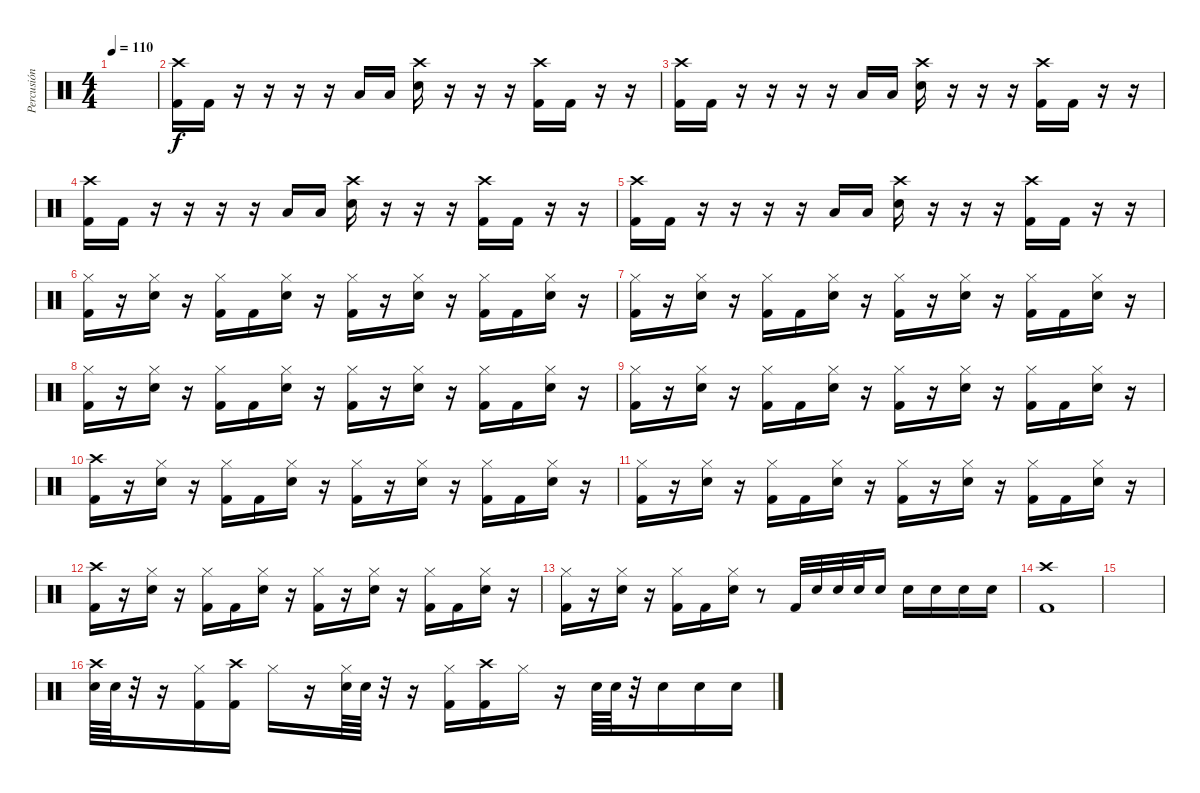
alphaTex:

\track ("Percusión" "Percusión") {instrument percussion}
\staff {score}
\articulation defaults
\ts (4 4)
\tempo 110
\clef neutral
\ks c
|
("Kick (hit) 2" "Crash high (hit)").16 "Kick (hit) 2".16 r.16 r.16 r.16 r.16 "Low Tom (hit)".16 "Low Tom (hit)".16 ("Electric Snare (hit)" "Crash high (hit)").16 r.16 r.16 r.16 ("Kick (hit) 2" "Crash high (hit)").16 "Kick (hit) 2".16 r.16 r.16 |
("Kick (hit) 2" "Crash high (hit)").16 "Kick (hit) 2".16 r.16 r.16 r.16 r.16 "Low Tom (hit)".16 "Low Tom (hit)".16 ("Electric Snare (hit)" "Crash high (hit)").16 r.16 r.16 r.16 ("Kick (hit) 2" "Crash high (hit)").16 "Kick (hit) 2".16 r.16 r.16 |
("Kick (hit) 2" "Crash high (hit)").16 "Kick (hit) 2".16 r.16 r.16 r.16 r.16 "Low Tom (hit)".16 "Low Tom (hit)".16 ("Electric Snare (hit)" "Crash high (hit)").16 r.16 r.16 r.16 ("Kick (hit) 2" "Crash high (hit)").16 "Kick (hit) 2".16 r.16 r.16 |
("Kick (hit) 2" "Crash high (hit)").16 "Kick (hit) 2".16 r.16 r.16 r.16 r.16 "Low Tom (hit)".16 "Low Tom (hit)".16 ("Electric Snare (hit)" "Crash high (hit)").16 r.16 r.16 r.16 ("Kick (hit) 2" "Crash high (hit)").16 "Kick (hit) 2".16 r.16 r.16 |
("Kick (hit) 2" "Hi-Hat (closed)").16 r.16 ("Electric Snare (hit)" "Hi-Hat (closed)").16 r.16 ("Kick (hit) 2" "Hi-Hat (closed)").16 "Kick (hit) 2".16 ("Electric Snare (hit)" "Hi-Hat (closed)").16 r.16 ("Kick (hit) 2" "Hi-Hat (closed)").16 r.16 ("Electric Snare (hit)" "Hi-Hat (closed)").16 r.16 ("Kick (hit) 2" "Hi-Hat (closed)").16 "Kick (hit) 2".16 ("Electric Snare (hit)" "Hi-Hat (closed)").16 r.16 |
("Kick (hit) 2" "Hi-Hat (closed)").16 r.16 ("Electric Snare (hit)" "Hi-Hat (closed)").16 r.16 ("Kick (hit) 2" "Hi-Hat (closed)").16 "Kick (hit) 2".16 ("Electric Snare (hit)" "Hi-Hat (closed)").16 r.16 ("Kick (hit) 2" "Hi-Hat (closed)").16 r.16 ("Electric Snare (hit)" "Hi-Hat (closed)").16 r.16 ("Kick (hit) 2" "Hi-Hat (closed)").16 "Kick (hit) 2".16 ("Electric Snare (hit)" "Hi-Hat (closed)").16 r.16 |
("Kick (hit) 2" "Hi-Hat (closed)").16 r.16 ("Electric Snare (hit)" "Hi-Hat (closed)").16 r.16 ("Kick (hit) 2" "Hi-Hat (closed)").16 "Kick (hit) 2".16 ("Electric Snare (hit)" "Hi-Hat (closed)").16 r.16 ("Kick (hit) 2" "Hi-Hat (closed)").16 r.16 ("Electric Snare (hit)" "Hi-Hat (closed)").16 r.16 ("Kick (hit) 2" "Hi-Hat (closed)").16 "Kick (hit) 2".16 ("Electric Snare (hit)" "Hi-Hat (closed)").16 r.16 |
("Kick (hit) 2" "Hi-Hat (closed)").16 r.16 ("Electric Snare (hit)" "Hi-Hat (closed)").16 r.16 ("Kick (hit) 2" "Hi-Hat (closed)").16 "Kick (hit) 2".16 ("Electric Snare (hit)" "Hi-Hat (closed)").16 r.16 ("Kick (hit) 2" "Hi-Hat (closed)").16 r.16 ("Electric Snare (hit)" "Hi-Hat (closed)").16 r.16 ("Kick (hit) 2" "Hi-Hat (closed)").16 "Kick (hit) 2".16 ("Electric Snare (hit)" "Hi-Hat (closed)").16 r.16 |
("Kick (hit) 2" "Crash high (hit)").16 r.16 ("Electric Snare (hit)" "Hi-Hat (closed)").16 r.16 ("Kick (hit) 2" "Hi-Hat (closed)").16 "Kick (hit) 2".16 ("Electric Snare (hit)" "Hi-Hat (closed)").16 r.16 ("Kick (hit) 2" "Hi-Hat (closed)").16 r.16 ("Electric Snare (hit)" "Hi-Hat (closed)").16 r.16 ("Kick (hit) 2" "Hi-Hat (closed)").16 "Kick (hit) 2".16 ("Electric Snare (hit)" "Hi-Hat (closed)").16 r.16 |
("Kick (hit) 2" "Hi-Hat (closed)").16 r.16 ("Electric Snare (hit)" "Hi-Hat (closed)").16 r.16 ("Kick (hit) 2" "Hi-Hat (closed)").16 "Kick (hit) 2".16 ("Electric Snare (hit)" "Hi-Hat (closed)").16 r.16 ("Kick (hit) 2" "Hi-Hat (closed)").16 r.16 ("Electric Snare (hit)" "Hi-Hat (closed)").16 r.16 ("Kick (hit) 2" "Hi-Hat (closed)").16 "Kick (hit) 2".16 ("Electric Snare (hit)" "Hi-Hat (closed)").16 r.16 |
("Kick (hit) 2" "Crash high (hit)").16 r.16 ("Electric Snare (hit)" "Hi-Hat (closed)").16 r.16 ("Kick (hit) 2" "Hi-Hat (closed)").16 "Kick (hit) 2".16 ("Electric Snare (hit)" "Hi-Hat (closed)").16 r.16 ("Kick (hit) 2" "Hi-Hat (closed)").16 r.16 ("Electric Snare (hit)" "Hi-Hat (closed)").16 r.16 ("Kick (hit) 2" "Hi-Hat (closed)").16 "Kick (hit) 2".16 ("Electric Snare (hit)" "Hi-Hat (closed)").16 r.16 |
("Kick (hit) 2" "Hi-Hat (closed)").16 r.16 ("Electric Snare (hit)" "Hi-Hat (closed)").16 r.16 ("Kick (hit) 2" "Hi-Hat (closed)").16 "Kick (hit) 2".16 ("Electric Snare (hit)" "Hi-Hat (closed)").16 r.8 "Kick (hit) 2".32 "Electric Snare (hit)".32 "Electric Snare (hit)".32 "Electric Snare (hit)".32 "Electric Snare (hit)".16 "Electric Snare (hit)".16 "Electric Snare (hit)".16 "Electric Snare (hit)".16 "Electric Snare (hit)".16 |
("Kick (hit) 2" "Crash high (hit)").1 |
|
("Electric Snare (hit)" "Crash high (hit)").64 "Electric Snare (hit)".64 r.32 r.16 ("Kick (hit) 2" "Hi-Hat (closed)").16 ("Kick (hit) 2" "Crash high (hit)").16 "Hi-Hat (closed)".16 r.16 ("Electric Snare (hit)" "Hi-Hat (closed)").64 "Electric Snare (hit)".64 r.32 r.16 ("Kick (hit) 2" "Hi-Hat (closed)").16 ("Kick (hit) 2" "Crash high (hit)").16 "Hi-Hat (closed)".16 r.16 "Electric Snare (hit)".64 "Electric Snare (hit)".64 r.32 "Electric Snare (hit)".16 "Electric Snare (hit)".16 "Electric Snare (hit)".16
